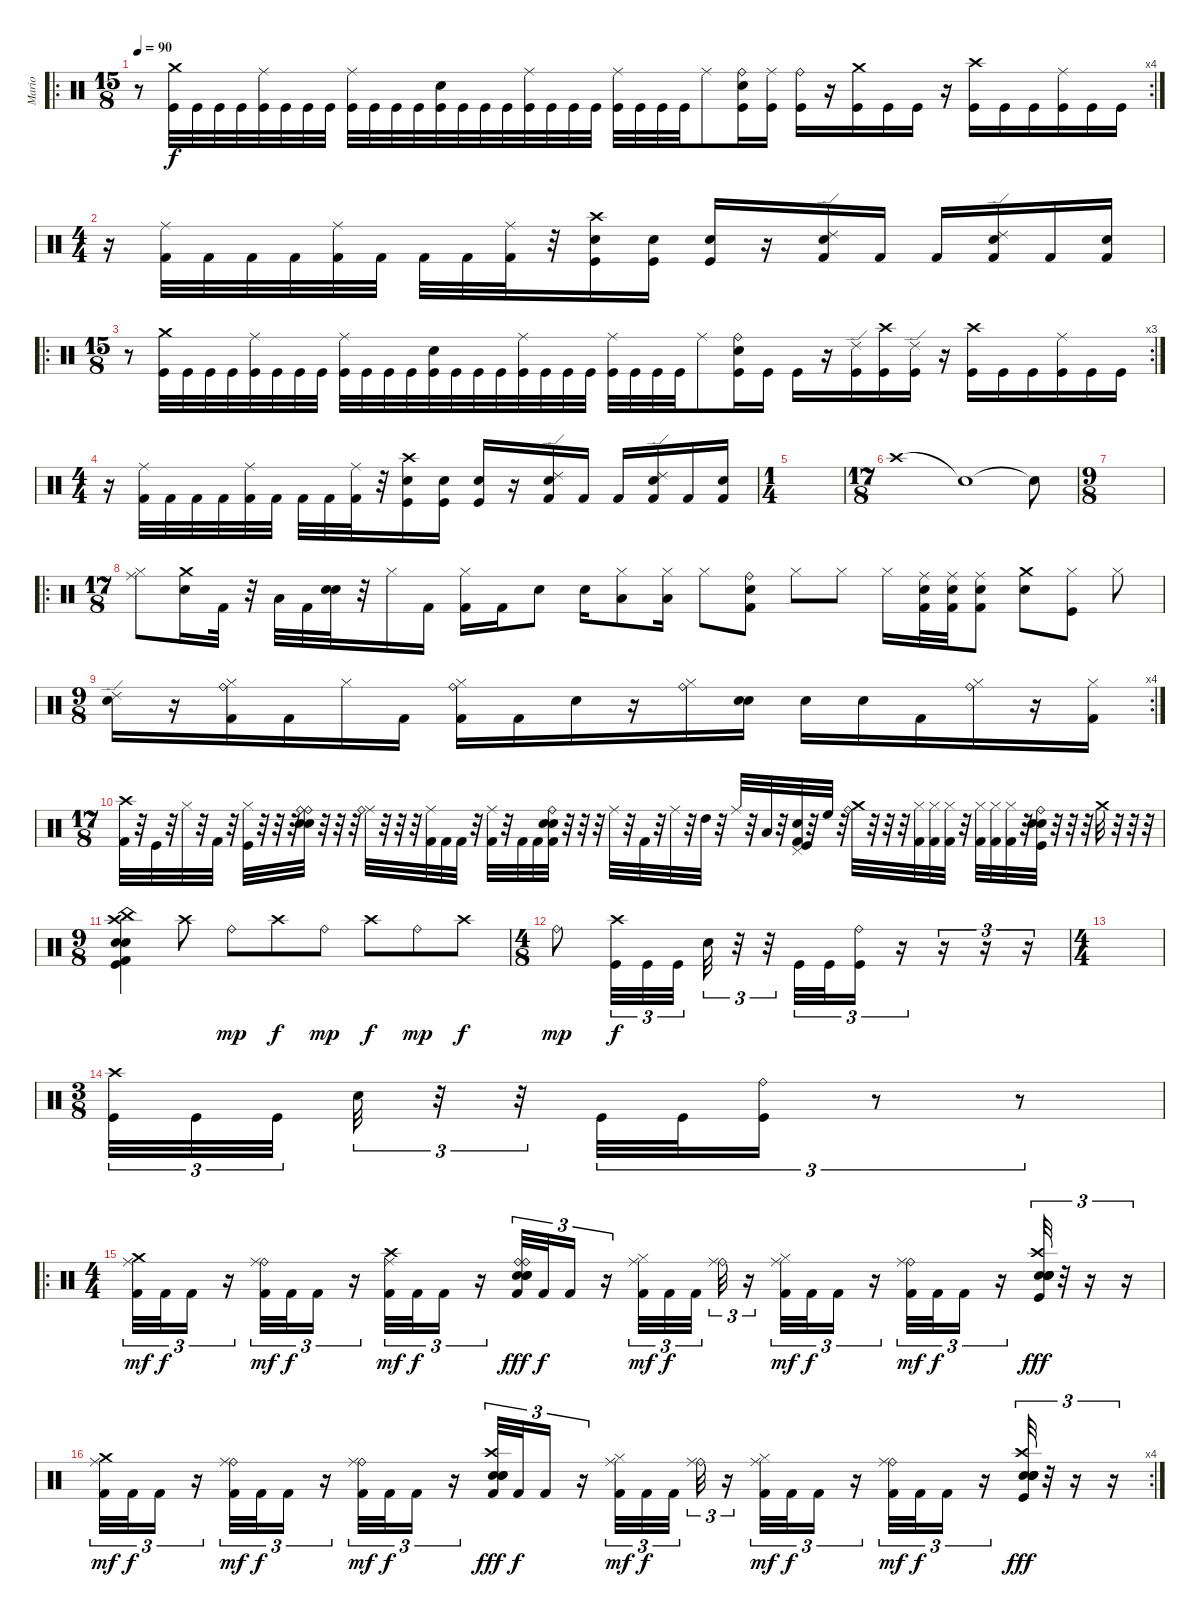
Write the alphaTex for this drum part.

\track ("Mario" "Mario") {instrument percussion}
\staff {score}
\articulation defaults
\ro
\rc 4
\ts (15 8)
\tempo 90
\clef neutral
\ks c
r.8{dy fff} ("Crash medium (hit)" "Kick (hit)").32{dy f} "Kick (hit)".32 "Kick (hit)".32 "Kick (hit)".32 ("Ride (middle)" "Kick (hit)").32 "Kick (hit)".32 "Kick (hit)".32 "Kick (hit)".32 ("Ride (middle)" "Kick (hit)").32 "Kick (hit)".32 "Kick (hit)".32 "Kick (hit)".32 ("Electric Snare (hit)" "Kick (hit)").32 "Kick (hit)".32 "Kick (hit)".32 "Kick (hit)".32 ("Ride (middle)" "Kick (hit)").32 "Kick (hit)".32 "Kick (hit)".32 "Kick (hit)".32 ("Ride (middle)" "Kick (hit)").32 "Kick (hit)".32 "Kick (hit)".32 "Kick (hit)".32 "Ride (middle)".8 ("Ride (bell)" "Electric Snare (hit)" "Kick (hit)").16 ("Ride (middle)" "Kick (hit)").16 ("Ride (bell)" "Kick (hit)").16 r.16 ("Crash medium (hit)" "Kick (hit)").16 "Kick (hit)".16 "Kick (hit)".16 r.16 ("Crash high (hit)" "Kick (hit)").16 "Kick (hit)".16 "Kick (hit)".16 ("Ride (middle)" "Kick (hit)").16 "Kick (hit)".16 "Kick (hit)".16 |
\ts (4 4)
r.16 ("Ride (middle)" "Kick (hit) 2").32 "Kick (hit) 2".32 "Kick (hit) 2".32 "Kick (hit) 2".32 ("Ride (middle)" "Kick (hit) 2").32 "Kick (hit) 2".32 "Kick (hit) 2".32 "Kick (hit) 2".32 ("Ride (middle)" "Kick (hit) 2").32 r.32 ("Crash high (hit)" "Kick (hit)" "Snare (hit) 2").16 ("Kick (hit)" "Snare (hit) 2").16 ("Kick (hit)" "Snare (hit) 2").16 r.16 ("Ride (edge) 2" "Electric Snare (hit)" "Kick (hit) 2").16 "Kick (hit) 2".16 "Kick (hit) 2".16 ("Ride (edge) 2" "Electric Snare (hit)" "Kick (hit) 2").16 "Kick (hit) 2".16 ("Electric Snare (hit)" "Kick (hit) 2").16 |
\ro
\rc 3
\ts (15 8)
r.8 ("Crash medium (hit)" "Kick (hit)").32 "Kick (hit)".32 "Kick (hit)".32 "Kick (hit)".32 ("Ride (middle)" "Kick (hit)").32 "Kick (hit)".32 "Kick (hit)".32 "Kick (hit)".32 ("Ride (middle)" "Kick (hit)").32 "Kick (hit)".32 "Kick (hit)".32 "Kick (hit)".32 ("Electric Snare (hit)" "Kick (hit)").32 "Kick (hit)".32 "Kick (hit)".32 "Kick (hit)".32 ("Ride (middle)" "Kick (hit)").32 "Kick (hit)".32 "Kick (hit)".32 "Kick (hit)".32 ("Ride (middle)" "Kick (hit)").32 "Kick (hit)".32 "Kick (hit)".32 "Kick (hit)".32 "Ride (middle)".8 ("Ride (bell)" "Electric Snare (hit)" "Kick (hit)").16 "Kick (hit)".16 "Kick (hit)".16 r.16 ("Ride (edge) 2" "Kick (hit)").16 ("Crash high (hit)" "Kick (hit)").16 ("Ride (edge) 2" "Kick (hit)").16 r.16 ("Crash high (hit)" "Kick (hit)").16 "Kick (hit)".16 "Kick (hit)".16 ("Ride (middle)" "Kick (hit)").16 "Kick (hit)".16 "Kick (hit)".16 |
\ts (4 4)
r.16 ("Ride (middle)" "Kick (hit) 2").32 "Kick (hit) 2".32 "Kick (hit) 2".32 "Kick (hit) 2".32 ("Ride (middle)" "Kick (hit) 2").32 "Kick (hit) 2".32 "Kick (hit) 2".32 "Kick (hit) 2".32 ("Ride (middle)" "Kick (hit) 2").32 r.32 ("Crash high (hit)" "Kick (hit)" "Snare (hit) 2").16 ("Kick (hit)" "Snare (hit) 2").16 ("Kick (hit)" "Snare (hit) 2").16 r.16 ("Ride (edge) 2" "Electric Snare (hit)" "Kick (hit) 2").16 "Kick (hit) 2".16 "Kick (hit) 2".16 ("Ride (edge) 2" "Electric Snare (hit)" "Kick (hit) 2").16 "Kick (hit) 2".16 ("Electric Snare (hit)" "Kick (hit) 2").16 |
\ts (1 4)
|
\ts (17 8)
"Crash high (hit)".1 "Snare (hit)"{t}.1 "Snare (hit)"{t}.8 |
\ts (9 8)
|
\ro
\ts (17 8)
("Hi-Hat (closed)" "Ride (middle)").8 ("Electric Snare (hit)" "Crash medium (hit)").16 "Kick (hit) 2".32 r.32 "Low Floor Tom (hit)".32 "Kick (hit) 2".32 ("Electric Snare (hit)" "Snare (hit) 2").32 r.32 "Hi-Hat (closed)".16 "Kick (hit) 2".16 ("Hi-Hat (closed)" "Kick (hit) 2").16 "Kick (hit) 2".16 "Electric Snare (hit)".8 "Snare (hit) 2".16 ("Hi-Hat (closed)" "Low Tom (hit)").8 ("Hi-Hat (closed)" "Low Tom (hit)").16 "Hi-Hat (closed)".8 ("Electric Snare (hit)" "Kick (hit) 2" "Ride (bell)").8 "Hi-Hat (closed)".8 "Hi-Hat (closed)".8 "Hi-Hat (closed)".16 ("Snare (hit) 2" "Kick (hit) 2" "Ride (middle)").32 ("Snare (hit) 2" "Kick (hit) 2" "Ride (middle)").32 ("Snare (hit) 2" "Kick (hit) 2" "Ride (middle)").8 ("Electric Snare (hit)" "Crash medium (hit)").8 ("Hi-Hat (closed)" "Kick (hit)").8 "Hi-Hat (closed)".8 |
\rc 4
\ts (9 8)
("Electric Snare (hit)" "Ride (edge) 2").16 r.16 ("Hi-Hat (closed)" "Kick (hit) 2" "Ride (bell)").16 "Kick (hit) 2".16 "Hi-Hat (closed)".16 "Kick (hit) 2".16 ("Hi-Hat (closed)" "Kick (hit) 2" "Ride (bell)").16 "Kick (hit) 2".16 "Electric Snare (hit)".16 r.16 ("Hi-Hat (closed)" "Ride (bell)").16 ("Electric Snare (hit)" "Snare (hit) 2").16 "Snare (hit) 2".16 "Electric Snare (hit)".16 "Kick (hit) 2".16 ("Hi-Hat (closed)" "Ride (bell)").16 r.16 ("Hi-Hat (closed)" "Kick (hit) 2").16 |
\ts (17 8)
("Crash high (hit)" "Kick (hit) 2").32 r.32 "Kick (hit)".32 r.32 "Hi-Hat (closed)".32 r.32 "Kick (hit) 2".32 r.32 ("Hi-Hat (closed)" "Kick (hit)").32 r.32 r.32 r.32 ("Ride (bell)" "Snare (hit) 2" "Electric Snare (hit)" "Ride (bell)").32 r.32 r.32 r.32 ("Ride (middle)" "Ride (bell)").32 r.32 r.32 r.32 ("Ride (middle)" "Kick (hit) 2").32 "Kick (hit) 2".32 "Kick (hit) 2".32 r.32 ("Ride (middle)" "Kick (hit) 2").32 r.32 "Kick (hit) 2".32 "Kick (hit) 2".32 ("Electric Snare (hit)" "Snare (hit) 2" "Ride (bell)" "Kick (hit) 2").32 r.32 r.32 r.32 "Ride (middle)".32 r.32 "Kick (hit) 2".32 r.32 "Ride (middle)".32 r.32 "High Tom (hit)".32 r.32 "Ride (middle)".32 r.32 "Low Floor Tom (hit)".32 r.32 ("Electric Snare (hit)" "Kick (hit) 2" "Kick (hit)" "Pedal Hi-Hat (hit)").32 r.32 "High Floor Tom (hit)".32 r.32 ("Crash medium (hit)" "Ride (bell)").32 r.32 r.32 r.32 ("Hi-Hat (closed)" "Kick (hit) 2").32 ("Hi-Hat (closed)" "Kick (hit) 2").32 ("Hi-Hat (closed)" "Kick (hit) 2").32 r.32 ("Hi-Hat (closed)" "Kick (hit) 2").32 ("Hi-Hat (closed)" "Kick (hit) 2").32 ("Hi-Hat (closed)" "Kick (hit) 2").32 r.32 ("Electric Snare (hit)" "Snare (hit) 2" "Kick (hit)" "Ride (bell)").32 r.32 r.32 r.32 "Crash medium (hit)".32 r.32 r.32 r.32 |
\ts (9 8)
("Crash high (hit)" "China (hit)" "Electric Snare (hit)" "Kick (hit) 2" "Kick (hit)" "Snare (hit) 2").4 "Crash high (hit)".8 "Ride (bell)".8{dy mp} "Crash high (hit)".8{dy f} "Ride (bell)".8{dy mp} "Crash high (hit)".8{dy f} "Ride (bell)".8{dy mp} "Crash high (hit)".8{dy f} |
\ts (4 8)
"Ride (bell)".8{dy mp} ("Crash high (hit)" "Kick (hit)").32{tu (3 2) dy f} "Kick (hit)".32{tu (3 2)} "Kick (hit)".32{tu (3 2)} "Electric Snare (hit)".32{tu (3 2)} r.32{tu (3 2)} r.32{tu (3 2)} "Kick (hit)".32{tu (3 2)} "Kick (hit)".32{tu (3 2)} ("Ride (bell)" "Kick (hit)").16{tu (3 2)} r.16{tu (3 2)} r.16{tu (3 2)} r.16{tu (3 2)} r.16{tu (3 2)} |
\ts (4 4)
|
\ts (3 8)
("Crash high (hit)" "Kick (hit)").32{tu (3 2)} "Kick (hit)".32{tu (3 2)} "Kick (hit)".32{tu (3 2)} "Electric Snare (hit)".32{tu (3 2)} r.32{tu (3 2)} r.32{tu (3 2)} "Kick (hit)".32{tu (3 2)} "Kick (hit)".32{tu (3 2)} ("Ride (bell)" "Kick (hit)").16{tu (3 2)} r.8{tu (3 2)} r.8{tu (3 2)} |
\ro
\ts (4 4)
("Crash medium (hit)" "Ride (middle)" "Kick (hit) 2").32{tu (3 2) dy mf} "Kick (hit) 2".32{tu (3 2) dy f} "Kick (hit) 2".16{tu (3 2)} r.16{tu (3 2)} ("Ride (bell)" "Ride (middle)" "Kick (hit) 2").32{tu (3 2) dy mf} "Kick (hit) 2".32{tu (3 2) dy f} "Kick (hit) 2".16{tu (3 2)} r.16{tu (3 2)} ("Crash high (hit)" "Ride (middle)" "Kick (hit) 2").32{tu (3 2) dy mf} "Kick (hit) 2".32{tu (3 2) dy f} "Kick (hit) 2".16{tu (3 2)} r.16{tu (3 2)} ("Ride (bell)" "Electric Snare (hit)" "Snare (hit) 2" "Kick (hit) 2" "Electric Snare (hit)" "Ride (bell)").32{tu (3 2) dy fff} "Kick (hit) 2".32{tu (3 2) dy f} "Kick (hit) 2".16{tu (3 2)} r.16{tu (3 2)} ("Hi-Hat (closed)" "Ride (middle)" "Kick (hit) 2").32{tu (3 2) dy mf} "Kick (hit) 2".32{tu (3 2) dy f} "Kick (hit) 2".32{tu (3 2)} ("Ride (bell)" "Ride (middle)").32{tu (3 2)} r.16{tu (3 2)} ("Hi-Hat (closed)" "Ride (middle)" "Kick (hit) 2").32{tu (3 2) dy mf} "Kick (hit) 2".32{tu (3 2) dy f} "Kick (hit) 2".16{tu (3 2)} r.16{tu (3 2)} ("Ride (bell)" "Ride (middle)" "Kick (hit) 2").32{tu (3 2) dy mf} "Kick (hit) 2".32{tu (3 2) dy f} "Kick (hit) 2".16{tu (3 2)} r.16{tu (3 2)} ("Crash high (hit)" "Electric Snare (hit)" "Snare (hit) 2" "Kick (hit)" "Electric Snare (hit)" "Snare (hit) 2").32{tu (3 2) dy fff} r.32{tu (3 2)} r.16{tu (3 2)} r.16{tu (3 2)} |
\rc 4
("Crash medium (hit)" "Ride (middle)" "Kick (hit) 2").32{tu (3 2) dy mf} "Kick (hit) 2".32{tu (3 2) dy f} "Kick (hit) 2".16{tu (3 2)} r.16{tu (3 2)} ("Ride (bell)" "Ride (middle)" "Kick (hit) 2").32{tu (3 2) dy mf} "Kick (hit) 2".32{tu (3 2) dy f} "Kick (hit) 2".16{tu (3 2)} r.16{tu (3 2)} ("Ride (bell)" "Ride (middle)" "Kick (hit) 2").32{tu (3 2) dy mf} "Kick (hit) 2".32{tu (3 2) dy f} "Kick (hit) 2".16{tu (3 2)} r.16{tu (3 2)} ("Crash high (hit)" "Electric Snare (hit)" "Snare (hit) 2" "Kick (hit) 2" "Electric Snare (hit)").32{tu (3 2) dy fff} "Kick (hit) 2".32{tu (3 2) dy f} "Kick (hit) 2".16{tu (3 2)} r.16{tu (3 2)} ("Hi-Hat (closed)" "Ride (middle)" "Kick (hit) 2").32{tu (3 2) dy mf} "Kick (hit) 2".32{tu (3 2) dy f} "Kick (hit) 2".32{tu (3 2)} ("Ride (bell)" "Ride (middle)").32{tu (3 2)} r.16{tu (3 2)} ("Hi-Hat (closed)" "Ride (middle)" "Kick (hit) 2").32{tu (3 2) dy mf} "Kick (hit) 2".32{tu (3 2) dy f} "Kick (hit) 2".16{tu (3 2)} r.16{tu (3 2)} ("Ride (bell)" "Ride (middle)" "Kick (hit) 2").32{tu (3 2) dy mf} "Kick (hit) 2".32{tu (3 2) dy f} "Kick (hit) 2".16{tu (3 2)} r.16{tu (3 2)} ("Crash high (hit)" "Electric Snare (hit)" "Snare (hit) 2" "Kick (hit)" "Snare (hit) 2" "Electric Snare (hit)").32{tu (3 2) dy fff} r.32{tu (3 2)} r.16{tu (3 2)} r.16{tu (3 2)}
